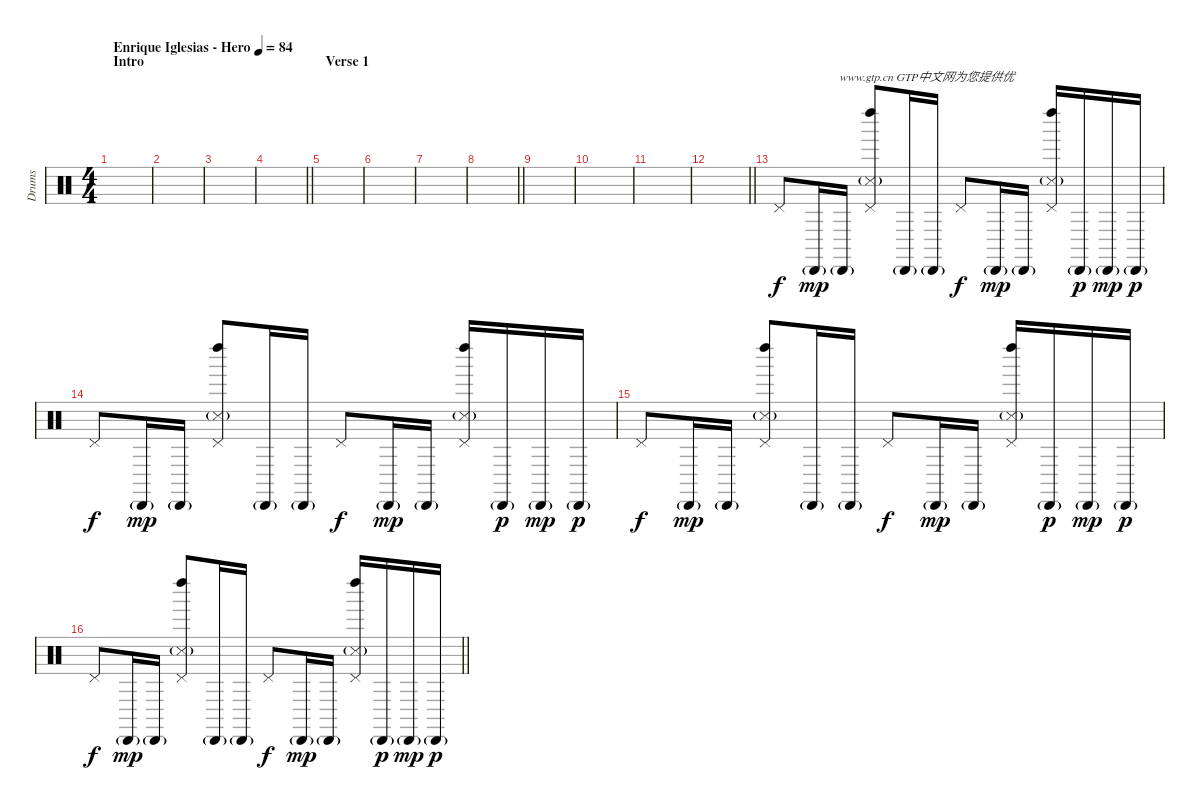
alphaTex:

\track ("Drums" "Drums") {instrument percussion}
\staff {score}
\articulation defaults
\ts (4 4)
\section ("" "Intro")
\tempo (84 "Enrique Iglesias - Hero")
\clef neutral
\ks c
|
|
|
\barLineRight lightlight
|
\section ("" "Verse 1")
|
|
|
\barLineRight lightlight
|
|
|
|
\barLineRight lightlight
|
"Pedal Hi-Hat (hit)".8{txt "                    www.gtp.cn GTP中文网为您提供优"} "Cabasa (hit)"{g}.16{dy mp} "Cabasa (hit)"{g}.16 ("Left Maraca (hit)" "Pedal Hi-Hat (hit)" "Snare (side stick) 3"{g}).8 "Cabasa (hit)"{g}.16 "Cabasa (hit)"{g}.16 "Pedal Hi-Hat (hit)".8{dy f} "Cabasa (hit)"{g}.16{dy mp} "Cabasa (hit)"{g}.16 ("Left Maraca (hit)" "Pedal Hi-Hat (hit)" "Snare (side stick) 3"{g}).16 "Cabasa (hit)"{g}.16{dy p} "Cabasa (hit)"{g}.16{dy mp} "Cabasa (hit)"{g}.16{dy p} |
"Pedal Hi-Hat (hit)".8{dy f} "Cabasa (hit)"{g}.16{dy mp} "Cabasa (hit)"{g}.16 ("Left Maraca (hit)" "Pedal Hi-Hat (hit)" "Snare (side stick) 3"{g}).8 "Cabasa (hit)"{g}.16 "Cabasa (hit)"{g}.16 "Pedal Hi-Hat (hit)".8{dy f} "Cabasa (hit)"{g}.16{dy mp} "Cabasa (hit)"{g}.16 ("Left Maraca (hit)" "Pedal Hi-Hat (hit)" "Snare (side stick) 3"{g}).16 "Cabasa (hit)"{g}.16{dy p} "Cabasa (hit)"{g}.16{dy mp} "Cabasa (hit)"{g}.16{dy p} |
"Pedal Hi-Hat (hit)".8{dy f} "Cabasa (hit)"{g}.16{dy mp} "Cabasa (hit)"{g}.16 ("Left Maraca (hit)" "Pedal Hi-Hat (hit)" "Snare (side stick) 3"{g}).8 "Cabasa (hit)"{g}.16 "Cabasa (hit)"{g}.16 "Pedal Hi-Hat (hit)".8{dy f} "Cabasa (hit)"{g}.16{dy mp} "Cabasa (hit)"{g}.16 ("Left Maraca (hit)" "Pedal Hi-Hat (hit)" "Snare (side stick) 3"{g}).16 "Cabasa (hit)"{g}.16{dy p} "Cabasa (hit)"{g}.16{dy mp} "Cabasa (hit)"{g}.16{dy p} |
\barLineRight lightlight "Pedal Hi-Hat (hit)".8{dy f} "Cabasa (hit)"{g}.16{dy mp} "Cabasa (hit)"{g}.16
("Left Maraca (hit)" "Pedal Hi-Hat (hit)" "Snare (side stick) 3"{g}).8 "Cabasa (hit)"{g}.16 "Cabasa (hit)"{g}.16 "Pedal Hi-Hat (hit)".8{dy f} "Cabasa (hit)"{g}.16{dy mp} "Cabasa (hit)"{g}.16 ("Left Maraca (hit)" "Pedal Hi-Hat (hit)" "Snare (side stick) 3"{g}).16 "Cabasa (hit)"{g}.16{dy p} "Cabasa (hit)"{g}.16{dy mp} "Cabasa (hit)"{g}.16{dy p}
